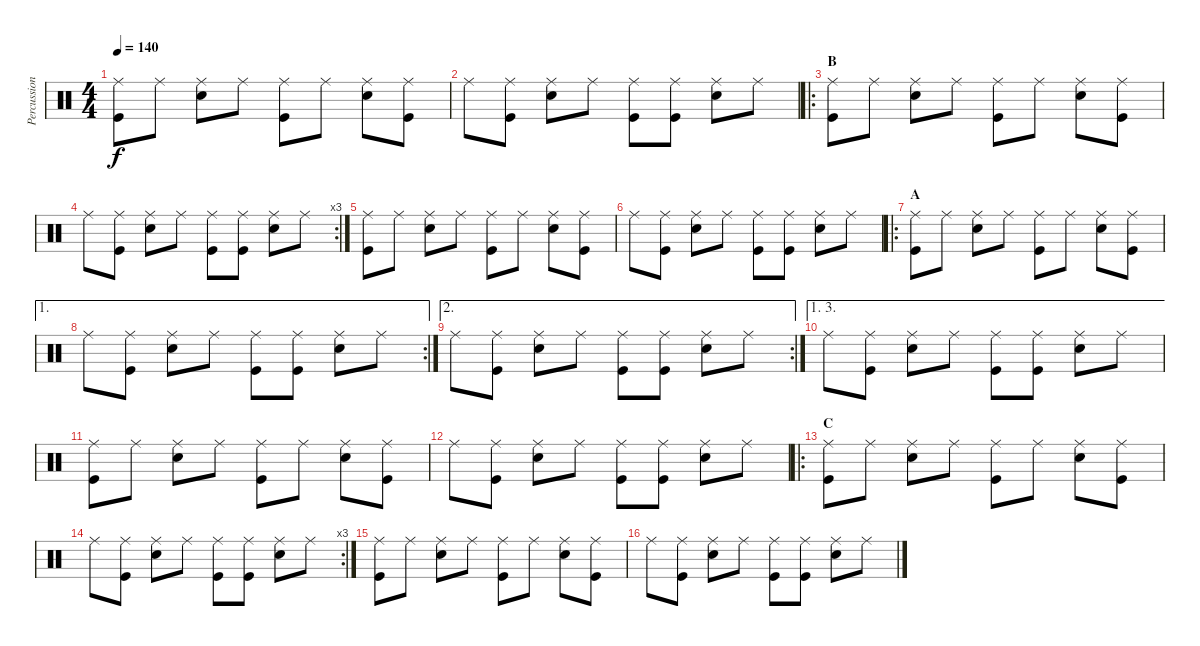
\track ("Percussions" "Percussion") {instrument percussion}
\staff {score}
\articulation defaults
\ts (4 4)
\tempo 140
\clef neutral
\ks c
("Ride (middle)" "Kick (hit)").8{dy f} "Ride (middle)".8 ("Ride (middle)" "Snare (hit) 2").8 "Ride (middle)".8 ("Ride (middle)" "Kick (hit)").8 "Ride (middle)".8 ("Ride (middle)" "Snare (hit) 2").8 ("Ride (middle)" "Kick (hit)").8 |
"Ride (middle)".8 ("Ride (middle)" "Kick (hit)").8 ("Ride (middle)" "Snare (hit) 2").8 "Ride (middle)".8 ("Ride (middle)" "Kick (hit)").8 ("Ride (middle)" "Kick (hit)").8 ("Ride (middle)" "Snare (hit) 2").8 "Ride (middle)".8 |
\ro
\section ("" "B")
("Ride (middle)" "Kick (hit)").8 "Ride (middle)".8 ("Ride (middle)" "Snare (hit) 2").8 "Ride (middle)".8 ("Ride (middle)" "Kick (hit)").8 "Ride (middle)".8 ("Ride (middle)" "Snare (hit) 2").8 ("Ride (middle)" "Kick (hit)").8 |
\rc 3 "Ride (middle)".8
("Ride (middle)" "Kick (hit)").8 ("Ride (middle)" "Snare (hit) 2").8 "Ride (middle)".8 ("Ride (middle)" "Kick (hit)").8 ("Ride (middle)" "Kick (hit)").8 ("Ride (middle)" "Snare (hit) 2").8 "Ride (middle)".8 |
("Ride (middle)" "Kick (hit)").8 "Ride (middle)".8 ("Ride (middle)" "Snare (hit) 2").8 "Ride (middle)".8 ("Ride (middle)" "Kick (hit)").8 "Ride (middle)".8 ("Ride (middle)" "Snare (hit) 2").8 ("Ride (middle)" "Kick (hit)").8 |
"Ride (middle)".8 ("Ride (middle)" "Kick (hit)").8 ("Ride (middle)" "Snare (hit) 2").8 "Ride (middle)".8 ("Ride (middle)" "Kick (hit)").8 ("Ride (middle)" "Kick (hit)").8 ("Ride (middle)" "Snare (hit) 2").8 "Ride (middle)".8 |
\ro
\section ("" "A")
("Ride (middle)" "Kick (hit)").8 "Ride (middle)".8 ("Ride (middle)" "Snare (hit) 2").8 "Ride (middle)".8 ("Ride (middle)" "Kick (hit)").8 "Ride (middle)".8 ("Ride (middle)" "Snare (hit) 2").8 ("Ride (middle)" "Kick (hit)").8 |
\ae 1
\rc 2 "Ride (middle)".8
("Ride (middle)" "Kick (hit)").8 ("Ride (middle)" "Snare (hit) 2").8 "Ride (middle)".8 ("Ride (middle)" "Kick (hit)").8 ("Ride (middle)" "Kick (hit)").8 ("Ride (middle)" "Snare (hit) 2").8 "Ride (middle)".8 |
\ae 2
\rc 2 "Ride (middle)".8
("Ride (middle)" "Kick (hit)").8 ("Ride (middle)" "Snare (hit) 2").8 "Ride (middle)".8 ("Ride (middle)" "Kick (hit)").8 ("Ride (middle)" "Kick (hit)").8 ("Ride (middle)" "Snare (hit) 2").8 "Ride (middle)".8 |
\ae (1 3)
"Ride (middle)".8 ("Ride (middle)" "Kick (hit)").8 ("Ride (middle)" "Snare (hit) 2").8 "Ride (middle)".8 ("Ride (middle)" "Kick (hit)").8 ("Ride (middle)" "Kick (hit)").8 ("Ride (middle)" "Snare (hit) 2").8 "Ride (middle)".8 |
("Ride (middle)" "Kick (hit)").8 "Ride (middle)".8 ("Ride (middle)" "Snare (hit) 2").8 "Ride (middle)".8 ("Ride (middle)" "Kick (hit)").8 "Ride (middle)".8 ("Ride (middle)" "Snare (hit) 2").8 ("Ride (middle)" "Kick (hit)").8 |
"Ride (middle)".8 ("Ride (middle)" "Kick (hit)").8 ("Ride (middle)" "Snare (hit) 2").8 "Ride (middle)".8 ("Ride (middle)" "Kick (hit)").8 ("Ride (middle)" "Kick (hit)").8 ("Ride (middle)" "Snare (hit) 2").8 "Ride (middle)".8 |
\ro
\section ("" "C")
("Ride (middle)" "Kick (hit)").8 "Ride (middle)".8 ("Ride (middle)" "Snare (hit) 2").8 "Ride (middle)".8 ("Ride (middle)" "Kick (hit)").8 "Ride (middle)".8 ("Ride (middle)" "Snare (hit) 2").8 ("Ride (middle)" "Kick (hit)").8 |
\rc 3 "Ride (middle)".8
("Ride (middle)" "Kick (hit)").8 ("Ride (middle)" "Snare (hit) 2").8 "Ride (middle)".8 ("Ride (middle)" "Kick (hit)").8 ("Ride (middle)" "Kick (hit)").8 ("Ride (middle)" "Snare (hit) 2").8 "Ride (middle)".8 |
("Ride (middle)" "Kick (hit)").8 "Ride (middle)".8 ("Ride (middle)" "Snare (hit) 2").8 "Ride (middle)".8 ("Ride (middle)" "Kick (hit)").8 "Ride (middle)".8 ("Ride (middle)" "Snare (hit) 2").8 ("Ride (middle)" "Kick (hit)").8 |
"Ride (middle)".8 ("Ride (middle)" "Kick (hit)").8 ("Ride (middle)" "Snare (hit) 2").8 "Ride (middle)".8 ("Ride (middle)" "Kick (hit)").8 ("Ride (middle)" "Kick (hit)").8 ("Ride (middle)" "Snare (hit) 2").8 "Ride (middle)".8
